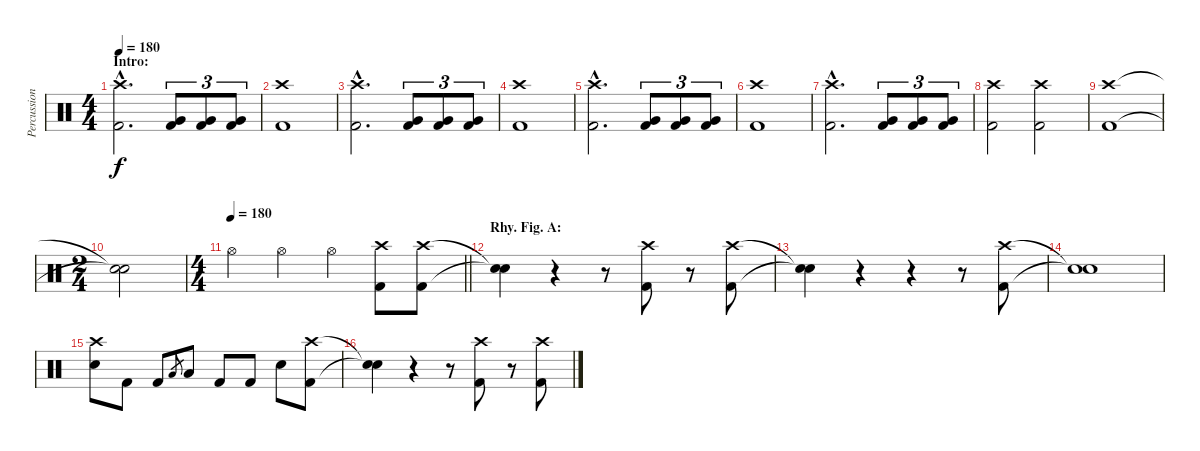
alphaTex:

\track ("Percussion" "Percussion") {instrument percussion}
\staff {score}
\articulation defaults
\ts (4 4)
\section ("" "Intro:")
\tempo 180
\tempo 90
\tempo 180
\clef neutral
\ks c
("Crash high (hit)"{hac} "Kick (hit) 2"{hac}).2{d dy f} ("Very Low Tom (hit)" "Kick (hit) 2").8{tu (3 2)} ("Very Low Tom (hit)" "Kick (hit) 2").8{tu (3 2)} ("Very Low Tom (hit)" "Kick (hit) 2").8{tu (3 2)} |
("Crash high (hit)" "Kick (hit) 2").1 |
("Crash high (hit)"{hac} "Kick (hit) 2"{hac}).2{d} ("Very Low Tom (hit)" "Kick (hit) 2").8{tu (3 2)} ("Very Low Tom (hit)" "Kick (hit) 2").8{tu (3 2)} ("Very Low Tom (hit)" "Kick (hit) 2").8{tu (3 2)} |
("Crash high (hit)" "Kick (hit) 2").1 |
("Crash high (hit)"{hac} "Kick (hit) 2"{hac}).2{d} ("Very Low Tom (hit)" "Kick (hit) 2").8{tu (3 2)} ("Very Low Tom (hit)" "Kick (hit) 2").8{tu (3 2)} ("Very Low Tom (hit)" "Kick (hit) 2").8{tu (3 2)} |
("Crash high (hit)" "Kick (hit) 2").1 |
("Crash high (hit)"{hac} "Kick (hit) 2"{hac}).2{d} ("Very Low Tom (hit)" "Kick (hit) 2").8{tu (3 2)} ("Very Low Tom (hit)" "Kick (hit) 2").8{tu (3 2)} ("Very Low Tom (hit)" "Kick (hit) 2").8{tu (3 2)} |
("Crash high (hit)" "Kick (hit) 2").2 ("Crash high (hit)" "Kick (hit) 2").2 |
("Crash high (hit)" "Kick (hit) 2").1 |
\ts (2 4)
("Snare (hit)"{t} "Snare (hit)"{t}).2 |
\ts (4 4)
\tempo 180
\barLineRight lightlight "Hi-Hat (open)".4 "Hi-Hat (open)".4 "Hi-Hat (open)".4
("Crash high (hit)" "Kick (hit) 2").8 ("Crash high (hit)" "Kick (hit) 2").8 |
\section ("" "Rhy. Fig. A:")
("Snare (hit)"{t} "Snare (hit)"{t}).4 r.4 r.8 ("Crash high (hit)" "Kick (hit) 2").8 r.8 ("Crash high (hit)" "Kick (hit) 2").8 |
("Snare (hit)"{t} "Snare (hit)"{t}).4 r.4 r.4 r.8 ("Crash high (hit)" "Kick (hit) 2").8 |
("Snare (hit)"{t} "Snare (hit)"{t}).1 |
("Crash high (hit)" "Electric Snare (hit)").8 "Kick (hit) 2".8 "Kick (hit) 2".8 "Low Tom (hit)".8{gr} "Low Tom (hit)".8 "Kick (hit) 2".8 "Kick (hit) 2".8 "Electric Snare (hit)".8 ("Crash high (hit)" "Kick (hit) 2").8 |
("Snare (hit)"{t} "Snare (hit)"{t}).4 r.4 r.8 ("Crash high (hit)" "Kick (hit) 2").8 r.8 ("Crash high (hit)" "Kick (hit) 2").8
